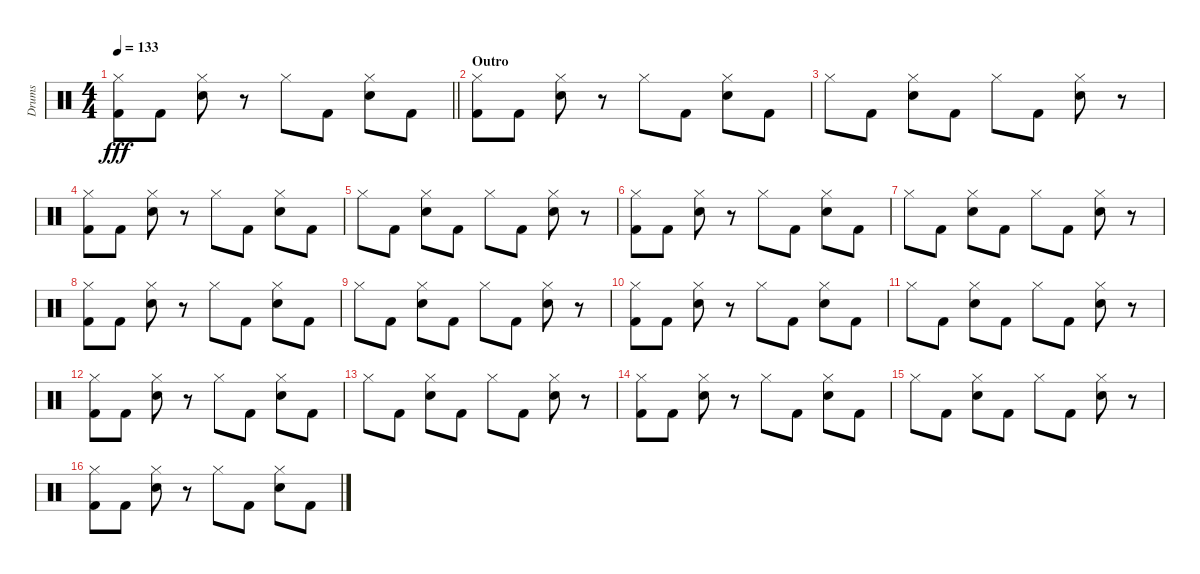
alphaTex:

\track ("Drums" "Drums") {instrument percussion}
\staff {score}
\articulation defaults
\ts (4 4)
\tempo 133
\clef neutral
\barLineRight lightlight
\ks c
("Hi-Hat (closed)" "Kick (hit) 2").8{dy fff} "Kick (hit) 2".8 ("Hi-Hat (closed)" "Snare (hit) 2").8 r.8 "Hi-Hat (closed)".8 "Kick (hit) 2".8 ("Hi-Hat (closed)" "Snare (hit) 2").8 "Kick (hit) 2".8 |
\section ("" "Outro")
("Hi-Hat (closed)" "Kick (hit) 2").8 "Kick (hit) 2".8 ("Hi-Hat (closed)" "Snare (hit) 2").8 r.8 "Hi-Hat (closed)".8 "Kick (hit) 2".8 ("Hi-Hat (closed)" "Snare (hit) 2").8 "Kick (hit) 2".8 |
"Hi-Hat (closed)".8 "Kick (hit) 2".8 ("Hi-Hat (closed)" "Snare (hit) 2").8 "Kick (hit) 2".8 "Hi-Hat (closed)".8 "Kick (hit) 2".8 ("Hi-Hat (closed)" "Snare (hit) 2").8 r.8 |
("Hi-Hat (closed)" "Kick (hit) 2").8 "Kick (hit) 2".8 ("Hi-Hat (closed)" "Snare (hit) 2").8 r.8 "Hi-Hat (closed)".8 "Kick (hit) 2".8 ("Hi-Hat (closed)" "Snare (hit) 2").8 "Kick (hit) 2".8 |
"Hi-Hat (closed)".8 "Kick (hit) 2".8 ("Hi-Hat (closed)" "Snare (hit) 2").8 "Kick (hit) 2".8 "Hi-Hat (closed)".8 "Kick (hit) 2".8 ("Hi-Hat (closed)" "Snare (hit) 2").8 r.8 |
("Hi-Hat (closed)" "Kick (hit) 2").8 "Kick (hit) 2".8 ("Hi-Hat (closed)" "Snare (hit) 2").8 r.8 "Hi-Hat (closed)".8 "Kick (hit) 2".8 ("Hi-Hat (closed)" "Snare (hit) 2").8 "Kick (hit) 2".8 |
"Hi-Hat (closed)".8 "Kick (hit) 2".8 ("Hi-Hat (closed)" "Snare (hit) 2").8 "Kick (hit) 2".8 "Hi-Hat (closed)".8 "Kick (hit) 2".8 ("Hi-Hat (closed)" "Snare (hit) 2").8 r.8 |
("Hi-Hat (closed)" "Kick (hit) 2").8 "Kick (hit) 2".8 ("Hi-Hat (closed)" "Snare (hit) 2").8 r.8 "Hi-Hat (closed)".8 "Kick (hit) 2".8 ("Hi-Hat (closed)" "Snare (hit) 2").8 "Kick (hit) 2".8 |
"Hi-Hat (closed)".8 "Kick (hit) 2".8 ("Hi-Hat (closed)" "Snare (hit) 2").8 "Kick (hit) 2".8 "Hi-Hat (closed)".8 "Kick (hit) 2".8 ("Hi-Hat (closed)" "Snare (hit) 2").8 r.8 |
("Hi-Hat (closed)" "Kick (hit) 2").8 "Kick (hit) 2".8 ("Hi-Hat (closed)" "Snare (hit) 2").8 r.8 "Hi-Hat (closed)".8 "Kick (hit) 2".8 ("Hi-Hat (closed)" "Snare (hit) 2").8 "Kick (hit) 2".8 |
"Hi-Hat (closed)".8 "Kick (hit) 2".8 ("Hi-Hat (closed)" "Snare (hit) 2").8 "Kick (hit) 2".8 "Hi-Hat (closed)".8 "Kick (hit) 2".8 ("Hi-Hat (closed)" "Snare (hit) 2").8 r.8 |
("Hi-Hat (closed)" "Kick (hit) 2").8 "Kick (hit) 2".8 ("Hi-Hat (closed)" "Snare (hit) 2").8 r.8 "Hi-Hat (closed)".8 "Kick (hit) 2".8 ("Hi-Hat (closed)" "Snare (hit) 2").8 "Kick (hit) 2".8 |
"Hi-Hat (closed)".8 "Kick (hit) 2".8 ("Hi-Hat (closed)" "Snare (hit) 2").8 "Kick (hit) 2".8 "Hi-Hat (closed)".8 "Kick (hit) 2".8 ("Hi-Hat (closed)" "Snare (hit) 2").8 r.8 |
("Hi-Hat (closed)" "Kick (hit) 2").8 "Kick (hit) 2".8 ("Hi-Hat (closed)" "Snare (hit) 2").8 r.8 "Hi-Hat (closed)".8 "Kick (hit) 2".8 ("Hi-Hat (closed)" "Snare (hit) 2").8 "Kick (hit) 2".8 |
"Hi-Hat (closed)".8 "Kick (hit) 2".8 ("Hi-Hat (closed)" "Snare (hit) 2").8 "Kick (hit) 2".8 "Hi-Hat (closed)".8 "Kick (hit) 2".8 ("Hi-Hat (closed)" "Snare (hit) 2").8 r.8 |
("Hi-Hat (closed)" "Kick (hit) 2").8 "Kick (hit) 2".8 ("Hi-Hat (closed)" "Snare (hit) 2").8 r.8 "Hi-Hat (closed)".8 "Kick (hit) 2".8 ("Hi-Hat (closed)" "Snare (hit) 2").8 "Kick (hit) 2".8
